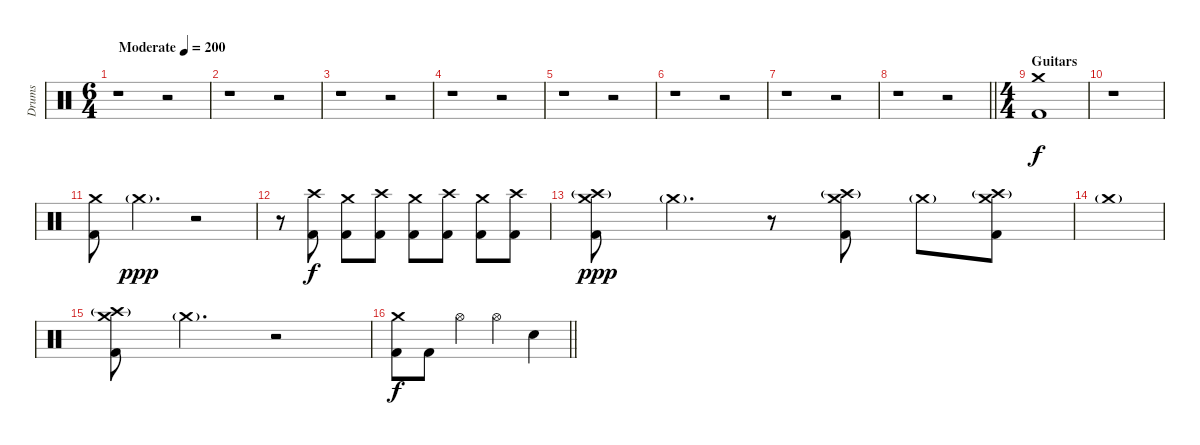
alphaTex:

\track ("Drums" "Drums") {instrument percussion}
\staff {score}
\articulation defaults
\ts (6 4)
\tempo (200 "Moderate")
\clef neutral
\ks c
r.1{dy f} r.2 |
r.1 r.2 |
r.1 r.2 |
r.1 r.2 |
r.1 r.2 |
r.1 r.2 |
r.1 r.2 |
\barLineRight lightlight
r.1 r.2 |
\ts (4 4)
\section ("" "Guitars")
("Crash medium (hit)" "Kick (hit) 2").1 |
r.1 |
("Crash medium (hit)" "Kick (hit) 2").8 "Crash medium (hit)"{g}.4{d dy ppp} r.2 |
r.8 ("Crash high (hit)" "Kick (hit) 2").8{dy f} ("Crash medium (hit)" "Kick (hit) 2").8 ("Crash high (hit)" "Kick (hit) 2").8 ("Crash medium (hit)" "Kick (hit) 2").8 ("Crash high (hit)" "Kick (hit) 2").8 ("Crash medium (hit)" "Kick (hit) 2").8 ("Crash high (hit)" "Kick (hit) 2").8 |
("Crash medium (hit)" "Crash high (hit)"{g} "Kick (hit) 2").8{dy ppp} "Crash medium (hit)"{g}.4{d} r.8 ("Crash medium (hit)" "Crash high (hit)"{g} "Kick (hit) 2").8 "Crash medium (hit)"{g}.8 ("Crash medium (hit)" "Crash high (hit)"{g} "Kick (hit) 2").8 |
"Crash medium (hit)"{g}.1 |
("Crash medium (hit)" "Crash high (hit)"{g} "Kick (hit) 2").8 "Crash medium (hit)"{g}.4{d} r.2 |
\barLineRight lightlight
("Crash medium (hit)" "Kick (hit) 2").8{dy f} "Kick (hit) 2".8 "Hi-Hat (open)".4 "Hi-Hat (open)".4 "Electric Snare (hit)".4
